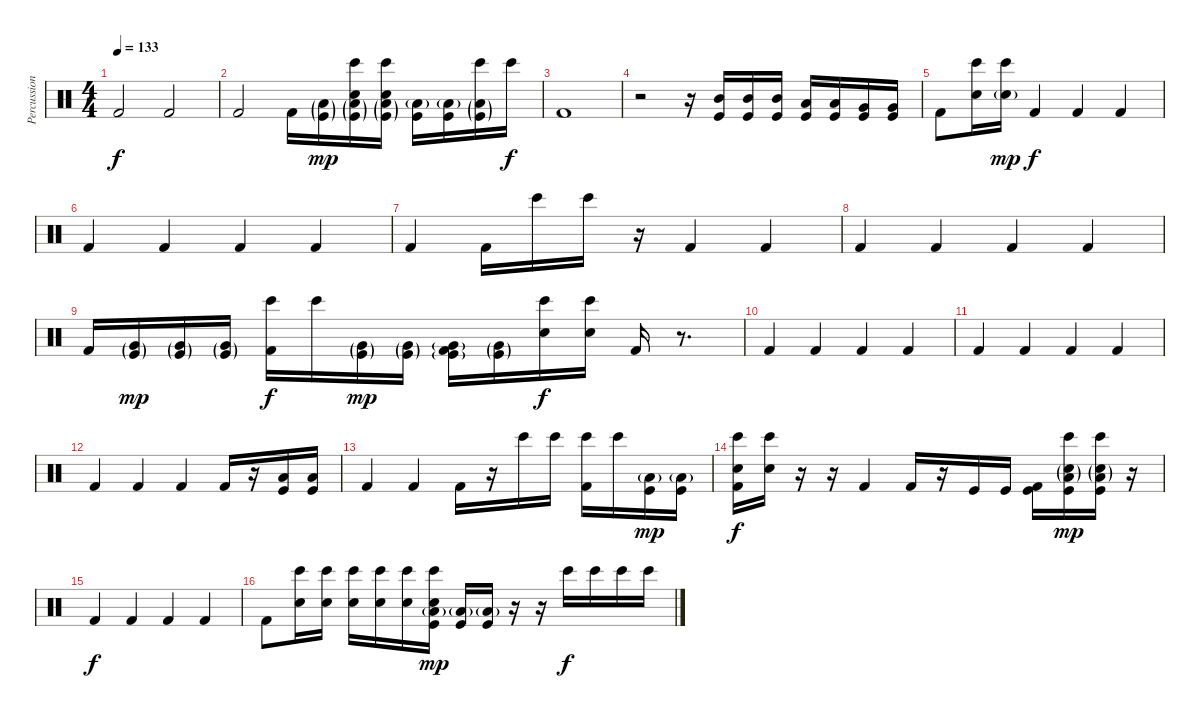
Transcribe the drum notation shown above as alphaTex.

\track ("Percussion" "Percussion") {instrument percussion}
\staff {score}
\articulation defaults
\ts (4 4)
\tempo 133
\clef neutral
\ks c "Kick (hit) 2".2{dy f} "Kick (hit) 2".2
|
"Kick (hit) 2".2 "Kick (hit) 2".16 ("Low Floor Tom (hit)"{g} "Kick (hit)"{g}).16{dy mp} ("Hand Clap (hit)" "Bongo High (hit)" "Low Floor Tom (hit)"{g} "Kick (hit)"{g}).16 ("Hand Clap (hit)" "Bongo High (hit)" "Low Floor Tom (hit)"{g} "Kick (hit)"{g}).16 ("Low Floor Tom (hit)"{g} "Kick (hit)").16 ("Low Floor Tom (hit)"{g} "Kick (hit)").16 ("Bongo High (hit)" "Low Floor Tom (hit)"{g} "Kick (hit)"{g}).16 "Bongo High (hit)".16{dy f} |
"Kick (hit) 2".1 |
r.2 r.16 ("Mid Tom (hit)" "Kick (hit)").16 ("Mid Tom (hit)" "Kick (hit)").16 ("Mid Tom (hit)" "Kick (hit)").16 ("Low Tom (hit)" "Kick (hit)").16 ("Low Tom (hit)" "Kick (hit)").16 ("Very Low Tom (hit)" "Kick (hit)").16 ("Very Low Tom (hit)" "Kick (hit)").16 |
"Kick (hit) 2".8 ("Hand Clap (hit)" "Bongo High (hit)").16 ("Hand Clap (hit)"{g} "Bongo High (hit)").16{dy mp} "Kick (hit) 2".4{dy f} "Kick (hit) 2".4 "Kick (hit) 2".4 |
"Kick (hit) 2".4 "Kick (hit) 2".4 "Kick (hit) 2".4 "Kick (hit) 2".4 |
"Kick (hit) 2".4 "Kick (hit) 2".16 "Bongo High (hit)".16 "Bongo High (hit)".16 r.16 "Kick (hit) 2".4 "Kick (hit) 2".4 |
"Kick (hit) 2".4 "Kick (hit) 2".4 "Kick (hit) 2".4 "Kick (hit) 2".4 |
"Kick (hit) 2".16 ("Very Low Tom (hit)"{g} "Kick (hit)"{g}).16{dy mp} ("Very Low Tom (hit)"{g} "Kick (hit)"{g}).16 ("Very Low Tom (hit)"{g} "Kick (hit)"{g}).16 ("Bongo High (hit)" "Kick (hit) 2").16{dy f} "Bongo High (hit)".16 ("Very Low Tom (hit)"{g} "Kick (hit)"{g}).16{dy mp} ("Very Low Tom (hit)"{g} "Kick (hit)"{g}).16 ("Very Low Tom (hit)"{g} "Kick (hit)"{g} "Kick (hit) 2").16 ("Very Low Tom (hit)"{g} "Kick (hit)"{g}).16 ("Bongo High (hit)" "Hand Clap (hit)").16{dy f} ("Bongo High (hit)" "Hand Clap (hit)").16 "Kick (hit) 2".16 r.8{d} |
"Kick (hit) 2".4 "Kick (hit) 2".4 "Kick (hit) 2".4 "Kick (hit) 2".4 |
"Kick (hit) 2".4 "Kick (hit) 2".4 "Kick (hit) 2".4 "Kick (hit) 2".4 |
"Kick (hit) 2".4 "Kick (hit) 2".4 "Kick (hit) 2".4 "Kick (hit) 2".16 r.16 ("Kick (hit)" "Low Tom (hit)").16 ("Kick (hit)" "Low Tom (hit)").16 |
"Kick (hit) 2".4 "Kick (hit) 2".4 "Kick (hit) 2".16 r.16 "Bongo High (hit)".16 "Bongo High (hit)".16 ("Bongo High (hit)" "Kick (hit) 2").16 "Bongo High (hit)".16 ("Low Floor Tom (hit)"{g} "Kick (hit)").16{dy mp} ("Low Floor Tom (hit)"{g} "Kick (hit)").16 |
("Bongo High (hit)" "Hand Clap (hit)" "Kick (hit) 2").16{dy f} ("Bongo High (hit)" "Hand Clap (hit)").16 r.16 r.16 "Kick (hit) 2".4 "Kick (hit) 2".16 r.16 "Kick (hit)".16 "Kick (hit)".16 ("Kick (hit)" "Kick (hit) 2").16 ("Bongo High (hit)" "Hand Clap (hit)"{g} "Low Floor Tom (hit)"{g} "Kick (hit)").16{dy mp} ("Bongo High (hit)" "Hand Clap (hit)"{g} "Low Floor Tom (hit)"{g} "Kick (hit)").16 r.16 |
"Kick (hit) 2".4{dy f} "Kick (hit) 2".4 "Kick (hit) 2".4 "Kick (hit) 2".4 |
"Kick (hit) 2".8 ("Hand Clap (hit)" "Bongo High (hit)").16 ("Hand Clap (hit)" "Bongo High (hit)").16 ("Hand Clap (hit)" "Bongo High (hit)").16 ("Hand Clap (hit)" "Bongo High (hit)").16 ("Hand Clap (hit)" "Bongo High (hit)").16 ("Low Floor Tom (hit)"{g} "Kick (hit)" "Hand Clap (hit)" "Bongo High (hit)").16{dy mp} ("Low Floor Tom (hit)"{g} "Kick (hit)").16 ("Low Floor Tom (hit)"{g} "Kick (hit)").16 r.16 r.16 "Bongo High (hit)".16{dy f} "Bongo High (hit)".16 "Bongo High (hit)".16 "Bongo High (hit)".16
